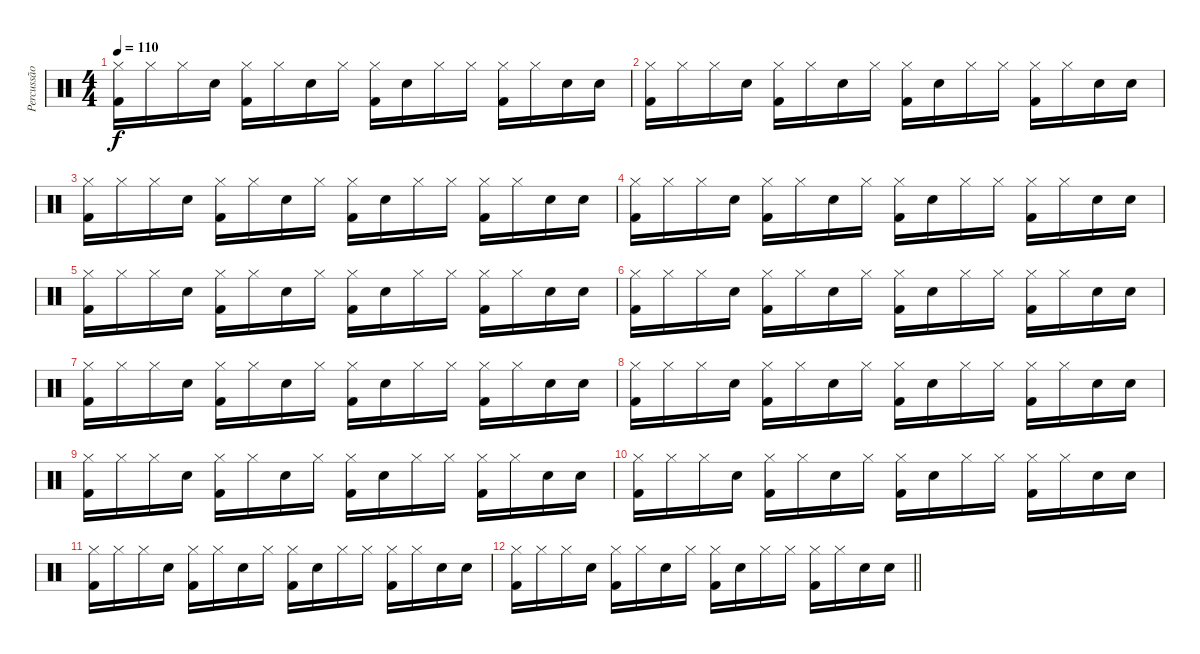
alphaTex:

\track ("Percussão" "Percussão") {instrument percussion}
\staff {score}
\articulation defaults
\ts (4 4)
\tempo 110
\clef neutral
\ks c
("Hi-Hat (closed)" "Kick (hit) 2").16{dy f} "Hi-Hat (closed)".16 "Hi-Hat (closed)".16 "Electric Snare (hit)".16 ("Hi-Hat (closed)" "Kick (hit) 2").16 "Hi-Hat (closed)".16 "Electric Snare (hit)".16 "Hi-Hat (closed)".16 ("Hi-Hat (closed)" "Kick (hit) 2").16 "Electric Snare (hit)".16 "Hi-Hat (closed)".16 "Hi-Hat (closed)".16 ("Hi-Hat (closed)" "Kick (hit) 2").16 "Hi-Hat (closed)".16 "Electric Snare (hit)".16 "Electric Snare (hit)".16 |
("Hi-Hat (closed)" "Kick (hit) 2").16 "Hi-Hat (closed)".16 "Hi-Hat (closed)".16 "Electric Snare (hit)".16 ("Hi-Hat (closed)" "Kick (hit) 2").16 "Hi-Hat (closed)".16 "Electric Snare (hit)".16 "Hi-Hat (closed)".16 ("Hi-Hat (closed)" "Kick (hit) 2").16 "Electric Snare (hit)".16 "Hi-Hat (closed)".16 "Hi-Hat (closed)".16 ("Hi-Hat (closed)" "Kick (hit) 2").16 "Hi-Hat (closed)".16 "Electric Snare (hit)".16 "Electric Snare (hit)".16 |
("Hi-Hat (closed)" "Kick (hit) 2").16 "Hi-Hat (closed)".16 "Hi-Hat (closed)".16 "Electric Snare (hit)".16 ("Hi-Hat (closed)" "Kick (hit) 2").16 "Hi-Hat (closed)".16 "Electric Snare (hit)".16 "Hi-Hat (closed)".16 ("Hi-Hat (closed)" "Kick (hit) 2").16 "Electric Snare (hit)".16 "Hi-Hat (closed)".16 "Hi-Hat (closed)".16 ("Hi-Hat (closed)" "Kick (hit) 2").16 "Hi-Hat (closed)".16 "Electric Snare (hit)".16 "Electric Snare (hit)".16 |
("Hi-Hat (closed)" "Kick (hit) 2").16 "Hi-Hat (closed)".16 "Hi-Hat (closed)".16 "Electric Snare (hit)".16 ("Hi-Hat (closed)" "Kick (hit) 2").16 "Hi-Hat (closed)".16 "Electric Snare (hit)".16 "Hi-Hat (closed)".16 ("Hi-Hat (closed)" "Kick (hit) 2").16 "Electric Snare (hit)".16 "Hi-Hat (closed)".16 "Hi-Hat (closed)".16 ("Hi-Hat (closed)" "Kick (hit) 2").16 "Hi-Hat (closed)".16 "Electric Snare (hit)".16 "Electric Snare (hit)".16 |
("Hi-Hat (closed)" "Kick (hit) 2").16 "Hi-Hat (closed)".16 "Hi-Hat (closed)".16 "Electric Snare (hit)".16 ("Hi-Hat (closed)" "Kick (hit) 2").16 "Hi-Hat (closed)".16 "Electric Snare (hit)".16 "Hi-Hat (closed)".16 ("Hi-Hat (closed)" "Kick (hit) 2").16 "Electric Snare (hit)".16 "Hi-Hat (closed)".16 "Hi-Hat (closed)".16 ("Hi-Hat (closed)" "Kick (hit) 2").16 "Hi-Hat (closed)".16 "Electric Snare (hit)".16 "Electric Snare (hit)".16 |
("Hi-Hat (closed)" "Kick (hit) 2").16 "Hi-Hat (closed)".16 "Hi-Hat (closed)".16 "Electric Snare (hit)".16 ("Hi-Hat (closed)" "Kick (hit) 2").16 "Hi-Hat (closed)".16 "Electric Snare (hit)".16 "Hi-Hat (closed)".16 ("Hi-Hat (closed)" "Kick (hit) 2").16 "Electric Snare (hit)".16 "Hi-Hat (closed)".16 "Hi-Hat (closed)".16 ("Hi-Hat (closed)" "Kick (hit) 2").16 "Hi-Hat (closed)".16 "Electric Snare (hit)".16 "Electric Snare (hit)".16 |
("Hi-Hat (closed)" "Kick (hit) 2").16 "Hi-Hat (closed)".16 "Hi-Hat (closed)".16 "Electric Snare (hit)".16 ("Hi-Hat (closed)" "Kick (hit) 2").16 "Hi-Hat (closed)".16 "Electric Snare (hit)".16 "Hi-Hat (closed)".16 ("Hi-Hat (closed)" "Kick (hit) 2").16 "Electric Snare (hit)".16 "Hi-Hat (closed)".16 "Hi-Hat (closed)".16 ("Hi-Hat (closed)" "Kick (hit) 2").16 "Hi-Hat (closed)".16 "Electric Snare (hit)".16 "Electric Snare (hit)".16 |
("Hi-Hat (closed)" "Kick (hit) 2").16 "Hi-Hat (closed)".16 "Hi-Hat (closed)".16 "Electric Snare (hit)".16 ("Hi-Hat (closed)" "Kick (hit) 2").16 "Hi-Hat (closed)".16 "Electric Snare (hit)".16 "Hi-Hat (closed)".16 ("Hi-Hat (closed)" "Kick (hit) 2").16 "Electric Snare (hit)".16 "Hi-Hat (closed)".16 "Hi-Hat (closed)".16 ("Hi-Hat (closed)" "Kick (hit) 2").16 "Hi-Hat (closed)".16 "Electric Snare (hit)".16 "Electric Snare (hit)".16 |
("Hi-Hat (closed)" "Kick (hit) 2").16 "Hi-Hat (closed)".16 "Hi-Hat (closed)".16 "Electric Snare (hit)".16 ("Hi-Hat (closed)" "Kick (hit) 2").16 "Hi-Hat (closed)".16 "Electric Snare (hit)".16 "Hi-Hat (closed)".16 ("Hi-Hat (closed)" "Kick (hit) 2").16 "Electric Snare (hit)".16 "Hi-Hat (closed)".16 "Hi-Hat (closed)".16 ("Hi-Hat (closed)" "Kick (hit) 2").16 "Hi-Hat (closed)".16 "Electric Snare (hit)".16 "Electric Snare (hit)".16 |
("Hi-Hat (closed)" "Kick (hit) 2").16 "Hi-Hat (closed)".16 "Hi-Hat (closed)".16 "Electric Snare (hit)".16 ("Hi-Hat (closed)" "Kick (hit) 2").16 "Hi-Hat (closed)".16 "Electric Snare (hit)".16 "Hi-Hat (closed)".16 ("Hi-Hat (closed)" "Kick (hit) 2").16 "Electric Snare (hit)".16 "Hi-Hat (closed)".16 "Hi-Hat (closed)".16 ("Hi-Hat (closed)" "Kick (hit) 2").16 "Hi-Hat (closed)".16 "Electric Snare (hit)".16 "Electric Snare (hit)".16 |
("Hi-Hat (closed)" "Kick (hit) 2").16 "Hi-Hat (closed)".16 "Hi-Hat (closed)".16 "Electric Snare (hit)".16 ("Hi-Hat (closed)" "Kick (hit) 2").16 "Hi-Hat (closed)".16 "Electric Snare (hit)".16 "Hi-Hat (closed)".16 ("Hi-Hat (closed)" "Kick (hit) 2").16 "Electric Snare (hit)".16 "Hi-Hat (closed)".16 "Hi-Hat (closed)".16 ("Hi-Hat (closed)" "Kick (hit) 2").16 "Hi-Hat (closed)".16 "Electric Snare (hit)".16 "Electric Snare (hit)".16 |
\barLineRight lightlight
("Hi-Hat (closed)" "Kick (hit) 2").16 "Hi-Hat (closed)".16 "Hi-Hat (closed)".16 "Electric Snare (hit)".16 ("Hi-Hat (closed)" "Kick (hit) 2").16 "Hi-Hat (closed)".16 "Electric Snare (hit)".16 "Hi-Hat (closed)".16 ("Hi-Hat (closed)" "Kick (hit) 2").16 "Electric Snare (hit)".16 "Hi-Hat (closed)".16 "Hi-Hat (closed)".16 ("Hi-Hat (closed)" "Kick (hit) 2").16 "Hi-Hat (closed)".16 "Electric Snare (hit)".16 "Electric Snare (hit)".16
